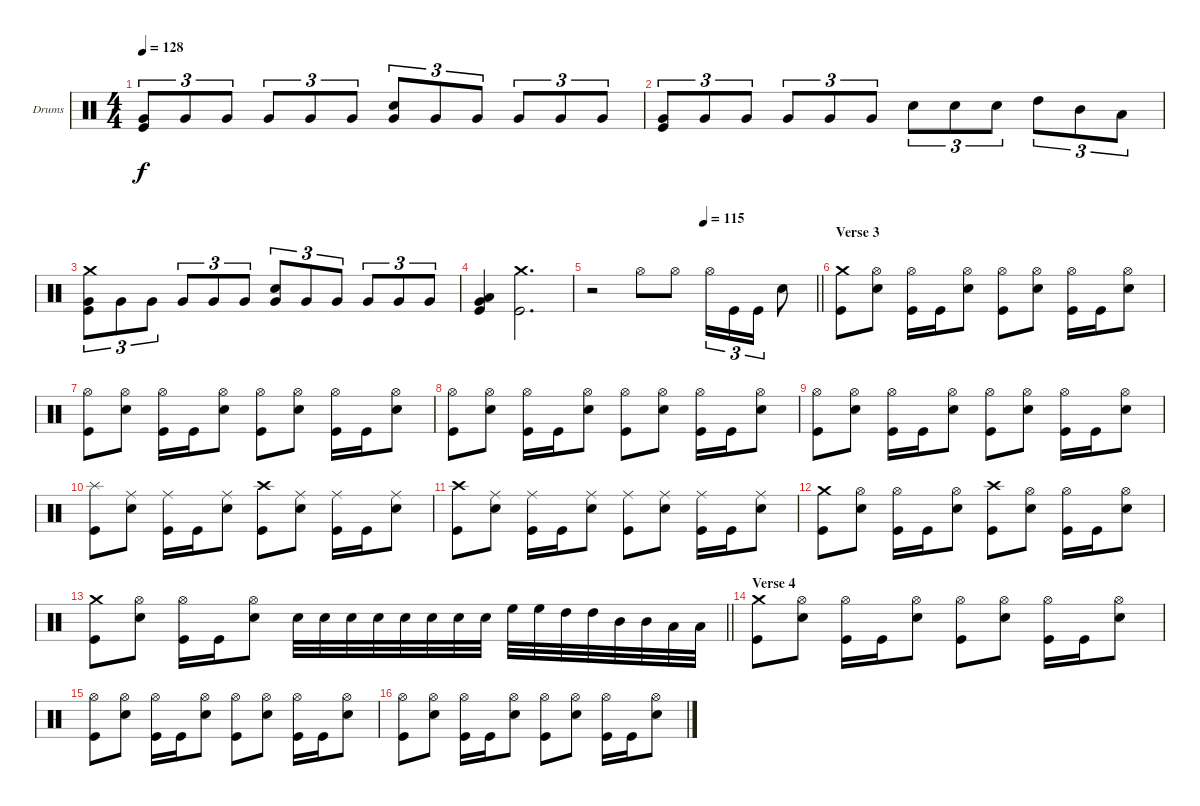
\bracketExtendMode groupsimilarinstruments
\firstSystemTrackNameOrientation horizontal
\otherSystemsTrackNameOrientation horizontal
\track ("Drumkit" "Drums") {instrument percussion}
\staff {score}
\articulation defaults
\ts (4 4)
\tempo 128
\clef neutral
\ks c
("Very Low Tom (hit)" "Kick (hit)").8{tu (3 2) dy f} "Very Low Tom (hit)".8{tu (3 2)} "Very Low Tom (hit)".8{tu (3 2)} "Very Low Tom (hit)".8{tu (3 2)} "Very Low Tom (hit)".8{tu (3 2)} "Very Low Tom (hit)".8{tu (3 2)} ("Very Low Tom (hit)" "Snare (hit) 2").8{tu (3 2)} "Very Low Tom (hit)".8{tu (3 2)} "Very Low Tom (hit)".8{tu (3 2)} "Very Low Tom (hit)".8{tu (3 2)} "Very Low Tom (hit)".8{tu (3 2)} "Very Low Tom (hit)".8{tu (3 2)} |
("Very Low Tom (hit)" "Kick (hit)").8{tu (3 2)} "Very Low Tom (hit)".8{tu (3 2)} "Very Low Tom (hit)".8{tu (3 2)} "Very Low Tom (hit)".8{tu (3 2)} "Very Low Tom (hit)".8{tu (3 2)} "Very Low Tom (hit)".8{tu (3 2)} "Snare (hit) 2".8{tu (3 2)} "Snare (hit) 2".8{tu (3 2)} "Snare (hit) 2".8{tu (3 2)} "High Tom (hit)".8{tu (3 2)} "Mid Tom (hit)".8{tu (3 2)} "Low Tom (hit)".8{tu (3 2)} |
("Crash medium (hit)" "Very Low Tom (hit)" "Kick (hit)").8{tu (3 2)} "Very Low Tom (hit)".8{tu (3 2)} "Very Low Tom (hit)".8{tu (3 2)} "Very Low Tom (hit)".8{tu (3 2)} "Very Low Tom (hit)".8{tu (3 2)} "Very Low Tom (hit)".8{tu (3 2)} ("Very Low Tom (hit)" "Snare (hit) 2").8{tu (3 2)} "Very Low Tom (hit)".8{tu (3 2)} "Very Low Tom (hit)".8{tu (3 2)} "Very Low Tom (hit)".8{tu (3 2)} "Very Low Tom (hit)".8{tu (3 2)} "Very Low Tom (hit)".8{tu (3 2)} |
("Low Tom (hit)" "Very Low Tom (hit)" "Kick (hit)").4 ("Crash medium (hit)" "Kick (hit)").2{d} |
\tempo (115 0.5)
\barLineRight lightlight
r.2 "Hi-Hat (open)".8 "Hi-Hat (open)".8 "Hi-Hat (open)".16{tu (3 2)} "Kick (hit)".16{tu (3 2)} "Kick (hit)".16{tu (3 2)} "Snare (hit) 2".8 |
\section ("" "Verse 3")
("Crash medium (hit)" "Kick (hit)").8 ("Hi-Hat (open)" "Snare (hit) 2").8 ("Hi-Hat (open)" "Kick (hit)").16 "Kick (hit)".16 ("Hi-Hat (open)" "Snare (hit) 2").8 ("Hi-Hat (open)" "Kick (hit)").8 ("Hi-Hat (open)" "Snare (hit) 2").8 ("Hi-Hat (open)" "Kick (hit)").16 "Kick (hit)".16 ("Hi-Hat (open)" "Snare (hit) 2").8 |
("Hi-Hat (open)" "Kick (hit)").8 ("Hi-Hat (open)" "Snare (hit) 2").8 ("Hi-Hat (open)" "Kick (hit)").16 "Kick (hit)".16 ("Hi-Hat (open)" "Snare (hit) 2").8 ("Hi-Hat (open)" "Kick (hit)").8 ("Hi-Hat (open)" "Snare (hit) 2").8 ("Hi-Hat (open)" "Kick (hit)").16 "Kick (hit)".16 ("Hi-Hat (open)" "Snare (hit) 2").8 |
("Hi-Hat (open)" "Kick (hit)").8 ("Hi-Hat (open)" "Snare (hit) 2").8 ("Hi-Hat (open)" "Kick (hit)").16 "Kick (hit)".16 ("Hi-Hat (open)" "Snare (hit) 2").8 ("Hi-Hat (open)" "Kick (hit)").8 ("Hi-Hat (open)" "Snare (hit) 2").8 ("Hi-Hat (open)" "Kick (hit)").16 "Kick (hit)".16 ("Hi-Hat (open)" "Snare (hit) 2").8 |
("Hi-Hat (open)" "Kick (hit)").8 ("Hi-Hat (open)" "Snare (hit) 2").8 ("Hi-Hat (open)" "Kick (hit)").16 "Kick (hit)".16 ("Hi-Hat (open)" "Snare (hit) 2").8 ("Hi-Hat (open)" "Kick (hit)").8 ("Hi-Hat (open)" "Snare (hit) 2").8 ("Hi-Hat (open)" "Kick (hit)").16 "Kick (hit)".16 ("Hi-Hat (open)" "Snare (hit) 2").8 |
("Splash (hit)" "Kick (hit)").8 ("Ride (middle)" "Snare (hit) 2").8 ("Ride (middle)" "Kick (hit)").16 "Kick (hit)".16 ("Ride (middle)" "Snare (hit) 2").8 ("Crash high (hit)" "Kick (hit)").8 ("Ride (middle)" "Snare (hit) 2").8 ("Ride (middle)" "Kick (hit)").16 "Kick (hit)".16 ("Ride (middle)" "Snare (hit) 2").8 |
("Crash high (hit)" "Kick (hit)").8 ("Ride (middle)" "Snare (hit) 2").8 ("Ride (middle)" "Kick (hit)").16 "Kick (hit)".16 ("Ride (middle)" "Snare (hit) 2").8 ("Ride (middle)" "Kick (hit)").8 ("Ride (middle)" "Snare (hit) 2").8 ("Ride (middle)" "Kick (hit)").16 "Kick (hit)".16 ("Ride (middle)" "Snare (hit) 2").8 |
("Crash medium (hit)" "Kick (hit)").8 ("Hi-Hat (open)" "Snare (hit) 2").8 ("Hi-Hat (open)" "Kick (hit)").16 "Kick (hit)".16 ("Hi-Hat (open)" "Snare (hit) 2").8 ("Crash high (hit)" "Kick (hit)").8 ("Hi-Hat (open)" "Snare (hit) 2").8 ("Hi-Hat (open)" "Kick (hit)").16 "Kick (hit)".16 ("Hi-Hat (open)" "Snare (hit) 2").8 |
\barLineRight lightlight
("Crash medium (hit)" "Kick (hit)").8 ("Hi-Hat (open)" "Snare (hit) 2").8 ("Hi-Hat (open)" "Kick (hit)").16 "Kick (hit)".16 ("Hi-Hat (open)" "Snare (hit) 2").8 "Snare (hit) 2".32 "Snare (hit) 2".32 "Snare (hit) 2".32 "Snare (hit) 2".32 "Snare (hit) 2".32 "Snare (hit) 2".32 "Snare (hit) 2".32 "Snare (hit) 2".32 "High Floor Tom (hit)".32 "High Floor Tom (hit)".32 "High Tom (hit)".32 "High Tom (hit)".32 "Mid Tom (hit)".32 "Mid Tom (hit)".32 "Low Tom (hit)".32 "Low Tom (hit)".32 |
\section ("" "Verse 4")
("Crash medium (hit)" "Kick (hit)").8 ("Hi-Hat (open)" "Snare (hit) 2").8 ("Hi-Hat (open)" "Kick (hit)").16 "Kick (hit)".16 ("Hi-Hat (open)" "Snare (hit) 2").8 ("Hi-Hat (open)" "Kick (hit)").8 ("Hi-Hat (open)" "Snare (hit) 2").8 ("Hi-Hat (open)" "Kick (hit)").16 "Kick (hit)".16 ("Hi-Hat (open)" "Snare (hit) 2").8 |
("Hi-Hat (open)" "Kick (hit)").8 ("Hi-Hat (open)" "Snare (hit) 2").8 ("Hi-Hat (open)" "Kick (hit)").16 "Kick (hit)".16 ("Hi-Hat (open)" "Snare (hit) 2").8 ("Hi-Hat (open)" "Kick (hit)").8 ("Hi-Hat (open)" "Snare (hit) 2").8 ("Hi-Hat (open)" "Kick (hit)").16 "Kick (hit)".16 ("Hi-Hat (open)" "Snare (hit) 2").8 |
("Hi-Hat (open)" "Kick (hit)").8 ("Hi-Hat (open)" "Snare (hit) 2").8 ("Hi-Hat (open)" "Kick (hit)").16 "Kick (hit)".16 ("Hi-Hat (open)" "Snare (hit) 2").8 ("Hi-Hat (open)" "Kick (hit)").8 ("Hi-Hat (open)" "Snare (hit) 2").8 ("Hi-Hat (open)" "Kick (hit)").16 "Kick (hit)".16 ("Hi-Hat (open)" "Snare (hit) 2").8
